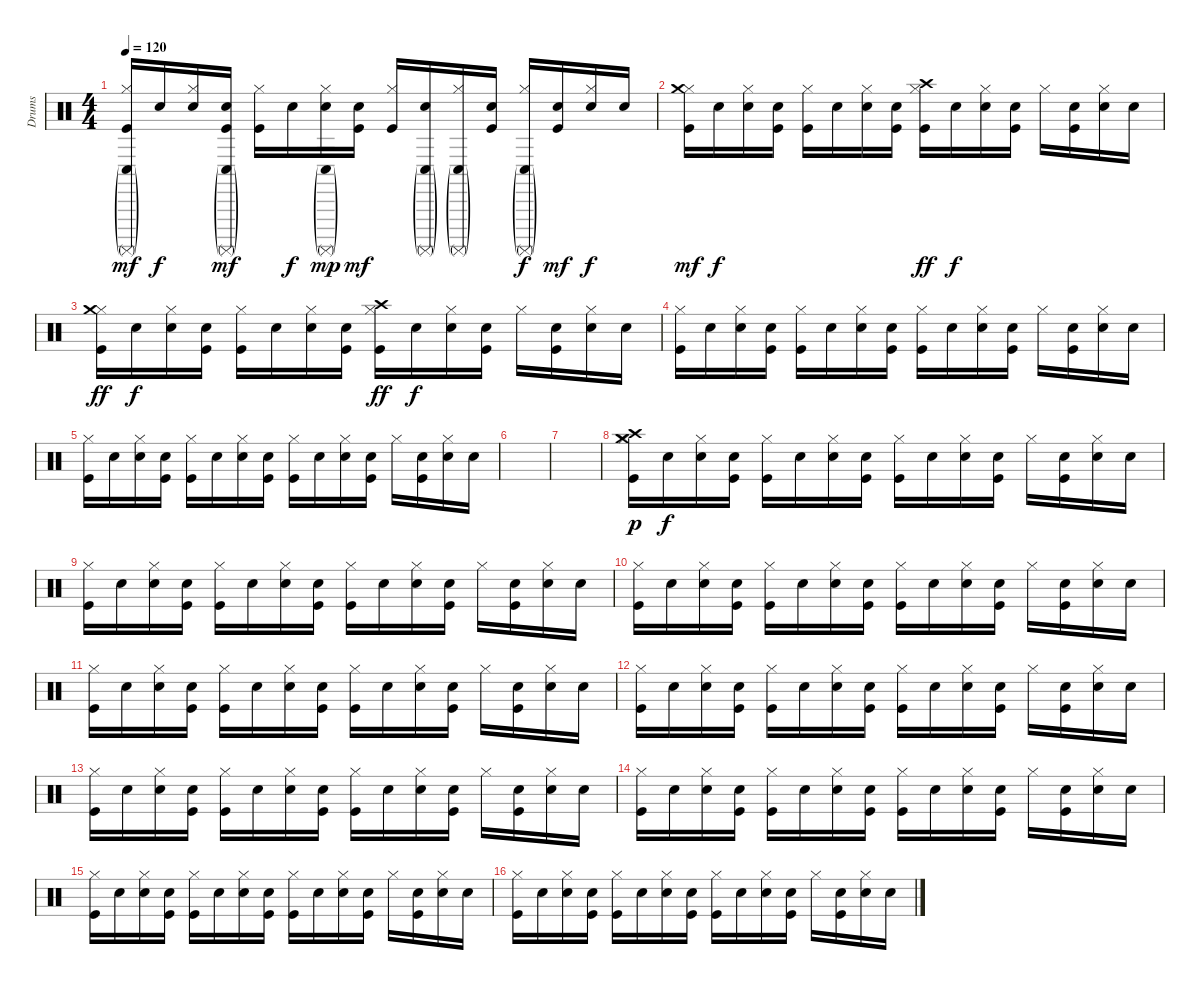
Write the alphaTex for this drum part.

\track ("Drums" "Drums") {instrument percussion}
\staff {score}
\articulation defaults
\ts (4 4)
\tempo 120
\clef neutral
\ks c
("Hi-Hat (closed)" "Surdo (mute)"{g} "Conga low (hit)"{g} "Kick (hit)").16{dy mf} "Snare (hit)".16{dy f} ("Hi-Hat (closed)" "Electric Snare (hit)").16 ("Snare (hit)" "Surdo (mute)"{g} "Conga low (hit)"{g} "Kick (hit)").16{dy mf} ("Hi-Hat (closed)" "Kick (hit)").16 "Snare (hit)".16{dy f} ("Hi-Hat (closed)" "Surdo (mute)"{g} "Conga low (hit)"{g} "Electric Snare (hit)").16{dy mp} ("Snare (hit)" "Kick (hit)").16{dy mf} ("Hi-Hat (closed)" "Kick (hit)").16 ("Snare (hit)" "Surdo (mute)"{g} "Conga low (hit)"{g}).16 ("Hi-Hat (closed)" "Surdo (mute)"{g} "Conga low (hit)"{g}).16 ("Snare (hit)" "Kick (hit)").16 ("Hi-Hat (closed)" "Surdo (mute)"{g} "Conga low (hit)"{g}).16{dy f} ("Snare (hit)" "Kick (hit)").16{dy mf} ("Hi-Hat (closed)" "Electric Snare (hit)").16{dy f} "Snare (hit)".16 |
("Hi-Hat (closed)" "Crash medium (hit)" "Kick (hit)").16{dy mf} "Snare (hit)".16{dy f} ("Hi-Hat (closed)" "Electric Snare (hit)").16 ("Snare (hit)" "Kick (hit)").16 ("Hi-Hat (closed)" "Kick (hit)").16 "Snare (hit)".16 ("Hi-Hat (closed)" "Electric Snare (hit)").16 ("Snare (hit)" "Kick (hit)").16 ("Hi-Hat (closed)" "Crash high (hit)" "Kick (hit)").16{dy ff} "Snare (hit)".16{dy f} ("Hi-Hat (closed)" "Electric Snare (hit)").16 ("Snare (hit)" "Kick (hit)").16 "Hi-Hat (closed)".16 ("Snare (hit)" "Kick (hit)").16 ("Hi-Hat (closed)" "Electric Snare (hit)").16 "Snare (hit)".16 |
("Hi-Hat (closed)" "Crash medium (hit)" "Kick (hit)").16{dy ff} "Snare (hit)".16{dy f} ("Hi-Hat (closed)" "Electric Snare (hit)").16 ("Snare (hit)" "Kick (hit)").16 ("Hi-Hat (closed)" "Kick (hit)").16 "Snare (hit)".16 ("Hi-Hat (closed)" "Electric Snare (hit)").16 ("Snare (hit)" "Kick (hit)").16 ("Hi-Hat (closed)" "Crash high (hit)" "Kick (hit)").16{dy ff} "Snare (hit)".16{dy f} ("Hi-Hat (closed)" "Electric Snare (hit)").16 ("Snare (hit)" "Kick (hit)").16 "Hi-Hat (closed)".16 ("Snare (hit)" "Kick (hit)").16 ("Hi-Hat (closed)" "Electric Snare (hit)").16 "Snare (hit)".16 |
("Hi-Hat (closed)" "Kick (hit)").16 "Snare (hit)".16 ("Hi-Hat (closed)" "Electric Snare (hit)").16 ("Snare (hit)" "Kick (hit)").16 ("Hi-Hat (closed)" "Kick (hit)").16 "Snare (hit)".16 ("Hi-Hat (closed)" "Electric Snare (hit)").16 ("Snare (hit)" "Kick (hit)").16 ("Hi-Hat (closed)" "Kick (hit)").16 "Snare (hit)".16 ("Hi-Hat (closed)" "Electric Snare (hit)").16 ("Snare (hit)" "Kick (hit)").16 "Hi-Hat (closed)".16 ("Snare (hit)" "Kick (hit)").16 ("Hi-Hat (closed)" "Electric Snare (hit)").16 "Snare (hit)".16 |
("Hi-Hat (closed)" "Kick (hit)").16 "Snare (hit)".16 ("Hi-Hat (closed)" "Electric Snare (hit)").16 ("Snare (hit)" "Kick (hit)").16 ("Hi-Hat (closed)" "Kick (hit)").16 "Snare (hit)".16 ("Hi-Hat (closed)" "Electric Snare (hit)").16 ("Snare (hit)" "Kick (hit)").16 ("Hi-Hat (closed)" "Kick (hit)").16 "Snare (hit)".16 ("Hi-Hat (closed)" "Electric Snare (hit)").16 ("Snare (hit)" "Kick (hit)").16 "Hi-Hat (closed)".16 ("Snare (hit)" "Kick (hit)").16 ("Hi-Hat (closed)" "Electric Snare (hit)").16 "Snare (hit)".16 |
|
|
("Hi-Hat (closed)" "Crash high (hit)" "Crash medium (hit)" "Kick (hit)").16{dy p} "Snare (hit)".16{dy f} ("Hi-Hat (closed)" "Electric Snare (hit)").16 ("Snare (hit)" "Kick (hit)").16 ("Hi-Hat (closed)" "Kick (hit)").16 "Snare (hit)".16 ("Hi-Hat (closed)" "Electric Snare (hit)").16 ("Snare (hit)" "Kick (hit)").16 ("Hi-Hat (closed)" "Kick (hit)").16 "Snare (hit)".16 ("Hi-Hat (closed)" "Electric Snare (hit)").16 ("Snare (hit)" "Kick (hit)").16 "Hi-Hat (closed)".16 ("Snare (hit)" "Kick (hit)").16 ("Hi-Hat (closed)" "Electric Snare (hit)").16 "Snare (hit)".16 |
("Hi-Hat (closed)" "Kick (hit)").16 "Snare (hit)".16 ("Hi-Hat (closed)" "Electric Snare (hit)").16 ("Snare (hit)" "Kick (hit)").16 ("Hi-Hat (closed)" "Kick (hit)").16 "Snare (hit)".16 ("Hi-Hat (closed)" "Electric Snare (hit)").16 ("Snare (hit)" "Kick (hit)").16 ("Hi-Hat (closed)" "Kick (hit)").16 "Snare (hit)".16 ("Hi-Hat (closed)" "Electric Snare (hit)").16 ("Snare (hit)" "Kick (hit)").16 "Hi-Hat (closed)".16 ("Snare (hit)" "Kick (hit)").16 ("Hi-Hat (closed)" "Electric Snare (hit)").16 "Snare (hit)".16 |
("Hi-Hat (closed)" "Kick (hit)").16 "Snare (hit)".16 ("Hi-Hat (closed)" "Electric Snare (hit)").16 ("Snare (hit)" "Kick (hit)").16 ("Hi-Hat (closed)" "Kick (hit)").16 "Snare (hit)".16 ("Hi-Hat (closed)" "Electric Snare (hit)").16 ("Snare (hit)" "Kick (hit)").16 ("Hi-Hat (closed)" "Kick (hit)").16 "Snare (hit)".16 ("Hi-Hat (closed)" "Electric Snare (hit)").16 ("Snare (hit)" "Kick (hit)").16 "Hi-Hat (closed)".16 ("Snare (hit)" "Kick (hit)").16 ("Hi-Hat (closed)" "Electric Snare (hit)").16 "Snare (hit)".16 |
("Hi-Hat (closed)" "Kick (hit)").16 "Snare (hit)".16 ("Hi-Hat (closed)" "Electric Snare (hit)").16 ("Snare (hit)" "Kick (hit)").16 ("Hi-Hat (closed)" "Kick (hit)").16 "Snare (hit)".16 ("Hi-Hat (closed)" "Electric Snare (hit)").16 ("Snare (hit)" "Kick (hit)").16 ("Hi-Hat (closed)" "Kick (hit)").16 "Snare (hit)".16 ("Hi-Hat (closed)" "Electric Snare (hit)").16 ("Snare (hit)" "Kick (hit)").16 "Hi-Hat (closed)".16 ("Snare (hit)" "Kick (hit)").16 ("Hi-Hat (closed)" "Electric Snare (hit)").16 "Snare (hit)".16 |
("Hi-Hat (closed)" "Kick (hit)").16 "Snare (hit)".16 ("Hi-Hat (closed)" "Electric Snare (hit)").16 ("Snare (hit)" "Kick (hit)").16 ("Hi-Hat (closed)" "Kick (hit)").16 "Snare (hit)".16 ("Hi-Hat (closed)" "Electric Snare (hit)").16 ("Snare (hit)" "Kick (hit)").16 ("Hi-Hat (closed)" "Kick (hit)").16 "Snare (hit)".16 ("Hi-Hat (closed)" "Electric Snare (hit)").16 ("Snare (hit)" "Kick (hit)").16 "Hi-Hat (closed)".16 ("Snare (hit)" "Kick (hit)").16 ("Hi-Hat (closed)" "Electric Snare (hit)").16 "Snare (hit)".16 |
("Hi-Hat (closed)" "Kick (hit)").16 "Snare (hit)".16 ("Hi-Hat (closed)" "Electric Snare (hit)").16 ("Snare (hit)" "Kick (hit)").16 ("Hi-Hat (closed)" "Kick (hit)").16 "Snare (hit)".16 ("Hi-Hat (closed)" "Electric Snare (hit)").16 ("Snare (hit)" "Kick (hit)").16 ("Hi-Hat (closed)" "Kick (hit)").16 "Snare (hit)".16 ("Hi-Hat (closed)" "Electric Snare (hit)").16 ("Snare (hit)" "Kick (hit)").16 "Hi-Hat (closed)".16 ("Snare (hit)" "Kick (hit)").16 ("Hi-Hat (closed)" "Electric Snare (hit)").16 "Snare (hit)".16 |
("Hi-Hat (closed)" "Kick (hit)").16 "Snare (hit)".16 ("Hi-Hat (closed)" "Electric Snare (hit)").16 ("Snare (hit)" "Kick (hit)").16 ("Hi-Hat (closed)" "Kick (hit)").16 "Snare (hit)".16 ("Hi-Hat (closed)" "Electric Snare (hit)").16 ("Snare (hit)" "Kick (hit)").16 ("Hi-Hat (closed)" "Kick (hit)").16 "Snare (hit)".16 ("Hi-Hat (closed)" "Electric Snare (hit)").16 ("Snare (hit)" "Kick (hit)").16 "Hi-Hat (closed)".16 ("Snare (hit)" "Kick (hit)").16 ("Hi-Hat (closed)" "Electric Snare (hit)").16 "Snare (hit)".16 |
("Hi-Hat (closed)" "Kick (hit)").16 "Snare (hit)".16 ("Hi-Hat (closed)" "Electric Snare (hit)").16 ("Snare (hit)" "Kick (hit)").16 ("Hi-Hat (closed)" "Kick (hit)").16 "Snare (hit)".16 ("Hi-Hat (closed)" "Electric Snare (hit)").16 ("Snare (hit)" "Kick (hit)").16 ("Hi-Hat (closed)" "Kick (hit)").16 "Snare (hit)".16 ("Hi-Hat (closed)" "Electric Snare (hit)").16 ("Snare (hit)" "Kick (hit)").16 "Hi-Hat (closed)".16 ("Snare (hit)" "Kick (hit)").16 ("Hi-Hat (closed)" "Electric Snare (hit)").16 "Snare (hit)".16 |
("Hi-Hat (closed)" "Kick (hit)").16 "Snare (hit)".16 ("Hi-Hat (closed)" "Electric Snare (hit)").16 ("Snare (hit)" "Kick (hit)").16 ("Hi-Hat (closed)" "Kick (hit)").16 "Snare (hit)".16 ("Hi-Hat (closed)" "Electric Snare (hit)").16 ("Snare (hit)" "Kick (hit)").16 ("Hi-Hat (closed)" "Kick (hit)").16 "Snare (hit)".16 ("Hi-Hat (closed)" "Electric Snare (hit)").16 ("Snare (hit)" "Kick (hit)").16 "Hi-Hat (closed)".16 ("Snare (hit)" "Kick (hit)").16 ("Hi-Hat (closed)" "Electric Snare (hit)").16 "Snare (hit)".16
